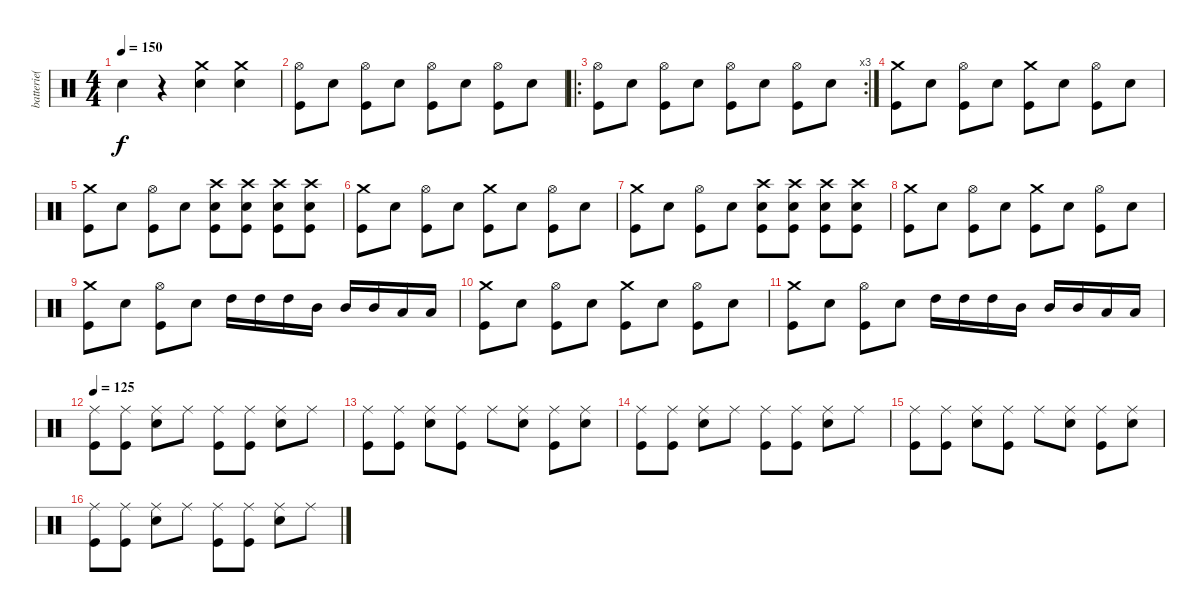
\track ("batterie( Yureesh )" "batterie( ") {instrument percussion}
\staff {score}
\articulation defaults
\ts (4 4)
\tempo 150
\clef neutral
\ks c "Snare (hit) 2".4{dy f}
r.4 ("Crash medium (hit)" "Snare (hit) 2").4 ("Crash medium (hit)" "Snare (hit) 2").4 |
("Hi-Hat (open)" "Kick (hit)").8 "Snare (hit) 2".8 ("Hi-Hat (open)" "Kick (hit)").8 "Snare (hit) 2".8 ("Hi-Hat (open)" "Kick (hit)").8 "Snare (hit) 2".8 ("Hi-Hat (open)" "Kick (hit)").8 "Snare (hit) 2".8 |
\ro
\rc 3
("Hi-Hat (open)" "Kick (hit)").8 "Snare (hit) 2".8 ("Hi-Hat (open)" "Kick (hit)").8 "Snare (hit) 2".8 ("Hi-Hat (open)" "Kick (hit)").8 "Snare (hit) 2".8 ("Hi-Hat (open)" "Kick (hit)").8 "Snare (hit) 2".8 |
("Crash medium (hit)" "Kick (hit)").8 "Snare (hit) 2".8 ("Hi-Hat (open)" "Kick (hit)").8 "Snare (hit) 2".8 ("Crash medium (hit)" "Kick (hit)").8 "Snare (hit) 2".8 ("Hi-Hat (open)" "Kick (hit)").8 "Snare (hit) 2".8 |
("Crash medium (hit)" "Kick (hit)").8 "Snare (hit) 2".8 ("Hi-Hat (open)" "Kick (hit)").8 "Snare (hit) 2".8 ("Crash high (hit)" "Snare (hit) 2" "Kick (hit)").8 ("Crash high (hit)" "Snare (hit) 2" "Kick (hit)").8 ("Crash high (hit)" "Snare (hit) 2" "Kick (hit)").8 ("Crash high (hit)" "Snare (hit) 2" "Kick (hit)").8 |
("Crash medium (hit)" "Kick (hit)").8 "Snare (hit) 2".8 ("Hi-Hat (open)" "Kick (hit)").8 "Snare (hit) 2".8 ("Crash medium (hit)" "Kick (hit)").8 "Snare (hit) 2".8 ("Hi-Hat (open)" "Kick (hit)").8 "Snare (hit) 2".8 |
("Crash medium (hit)" "Kick (hit)").8 "Snare (hit) 2".8 ("Hi-Hat (open)" "Kick (hit)").8 "Snare (hit) 2".8 ("Crash high (hit)" "Snare (hit) 2" "Kick (hit)").8 ("Crash high (hit)" "Snare (hit) 2" "Kick (hit)").8 ("Crash high (hit)" "Snare (hit) 2" "Kick (hit)").8 ("Crash high (hit)" "Snare (hit) 2" "Kick (hit)").8 |
("Crash medium (hit)" "Kick (hit)").8 "Snare (hit) 2".8 ("Hi-Hat (open)" "Kick (hit)").8 "Snare (hit) 2".8 ("Crash medium (hit)" "Kick (hit)").8 "Snare (hit) 2".8 ("Hi-Hat (open)" "Kick (hit)").8 "Snare (hit) 2".8 |
("Crash medium (hit)" "Kick (hit)").8 "Snare (hit) 2".8 ("Hi-Hat (open)" "Kick (hit)").8 "Snare (hit) 2".8 "High Tom (hit)".16 "High Tom (hit)".16 "High Tom (hit)".16 "Mid Tom (hit)".16 "Mid Tom (hit)".16 "Mid Tom (hit)".16 "Low Tom (hit)".16 "Low Tom (hit)".16 |
("Crash medium (hit)" "Kick (hit)").8 "Snare (hit) 2".8 ("Hi-Hat (open)" "Kick (hit)").8 "Snare (hit) 2".8 ("Crash medium (hit)" "Kick (hit)").8 "Snare (hit) 2".8 ("Hi-Hat (open)" "Kick (hit)").8 "Snare (hit) 2".8 |
("Crash medium (hit)" "Kick (hit)").8 "Snare (hit) 2".8 ("Hi-Hat (open)" "Kick (hit)").8 "Snare (hit) 2".8 "High Tom (hit)".16 "High Tom (hit)".16 "High Tom (hit)".16 "Mid Tom (hit)".16 "Mid Tom (hit)".16 "Mid Tom (hit)".16 "Low Tom (hit)".16 "Low Tom (hit)".16 |
\tempo 125
("Ride (middle)" "Kick (hit)").8 ("Ride (middle)" "Kick (hit)").8 ("Ride (middle)" "Snare (hit) 2").8 "Ride (middle)".8 ("Ride (middle)" "Kick (hit)").8 ("Ride (middle)" "Kick (hit)").8 ("Ride (middle)" "Snare (hit) 2").8 "Ride (middle)".8 |
("Ride (middle)" "Kick (hit)").8 ("Ride (middle)" "Kick (hit)").8 ("Ride (middle)" "Snare (hit) 2").8 ("Ride (middle)" "Kick (hit)").8 "Ride (middle)".8 ("Ride (middle)" "Snare (hit) 2").8 ("Ride (middle)" "Kick (hit)").8 ("Ride (middle)" "Snare (hit) 2").8 |
("Ride (middle)" "Kick (hit)").8 ("Ride (middle)" "Kick (hit)").8 ("Ride (middle)" "Snare (hit) 2").8 "Ride (middle)".8 ("Ride (middle)" "Kick (hit)").8 ("Ride (middle)" "Kick (hit)").8 ("Ride (middle)" "Snare (hit) 2").8 "Ride (middle)".8 |
("Ride (middle)" "Kick (hit)").8 ("Ride (middle)" "Kick (hit)").8 ("Ride (middle)" "Snare (hit) 2").8 ("Ride (middle)" "Kick (hit)").8 "Ride (middle)".8 ("Ride (middle)" "Snare (hit) 2").8 ("Ride (middle)" "Kick (hit)").8 ("Ride (middle)" "Snare (hit) 2").8 |
("Ride (middle)" "Kick (hit)").8 ("Ride (middle)" "Kick (hit)").8 ("Ride (middle)" "Snare (hit) 2").8 "Ride (middle)".8 ("Ride (middle)" "Kick (hit)").8 ("Ride (middle)" "Kick (hit)").8 ("Ride (middle)" "Snare (hit) 2").8 "Ride (middle)".8
